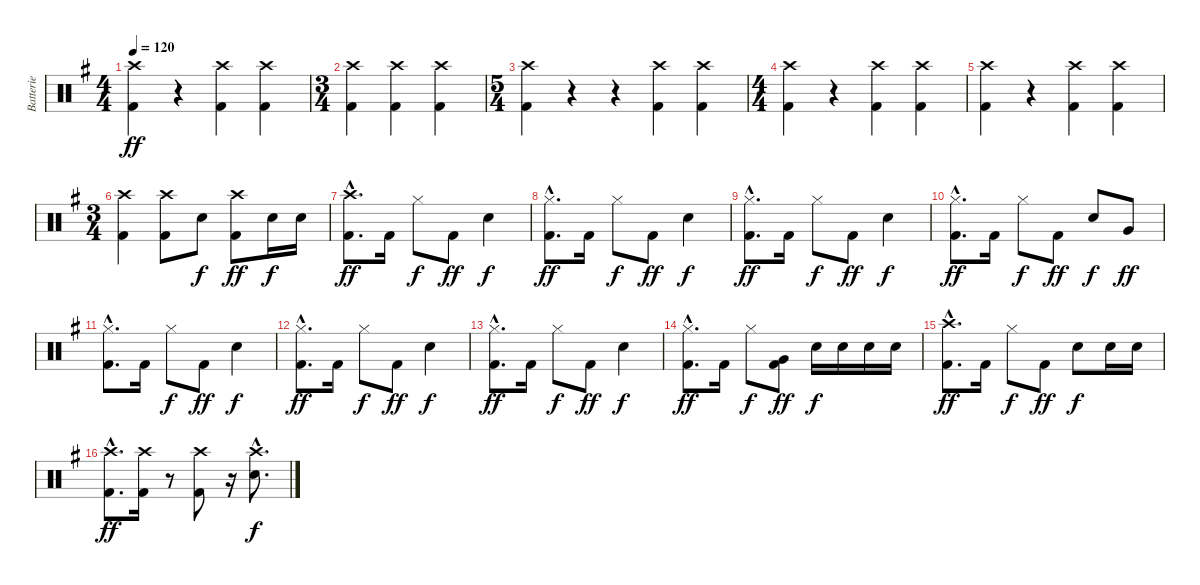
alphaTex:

\track ("Batterie" "Batterie") {instrument percussion}
\staff {score}
\articulation defaults
\ts (4 4)
\tempo 120
\clef neutral
\ks g
("Crash high (hit)" "Kick (hit) 2").4{dy ff} r.4 ("Crash high (hit)" "Kick (hit) 2").4 ("Crash high (hit)" "Kick (hit) 2").4 |
\ts (3 4)
("Crash high (hit)" "Kick (hit) 2").4 ("Crash high (hit)" "Kick (hit) 2").4 ("Crash high (hit)" "Kick (hit) 2").4 |
\ts (5 4)
("Crash high (hit)" "Kick (hit) 2").4 r.4 r.4 ("Crash high (hit)" "Kick (hit) 2").4 ("Crash high (hit)" "Kick (hit) 2").4 |
\ts (4 4)
("Crash high (hit)" "Kick (hit) 2").4 r.4 ("Crash high (hit)" "Kick (hit) 2").4 ("Crash high (hit)" "Kick (hit) 2").4 |
("Crash high (hit)" "Kick (hit) 2").4 r.4 ("Crash high (hit)" "Kick (hit) 2").4 ("Crash high (hit)" "Kick (hit) 2").4 |
\ts (3 4)
("Crash high (hit)" "Kick (hit) 2").4 ("Crash high (hit)" "Kick (hit) 2").8 "Snare (hit) 2".8{dy f} ("Crash high (hit)" "Kick (hit) 2").8{dy ff} "Snare (hit) 2".16{dy f} "Snare (hit) 2".16 |
("Crash high (hit)"{hac} "Kick (hit) 2"{hac}).8{d dy ff} "Kick (hit) 2".16 "Hi-Hat (closed)".8{dy f} "Kick (hit) 2".8{dy ff} "Snare (hit) 2".4{dy f} |
("Hi-Hat (closed)"{hac} "Kick (hit) 2"{hac}).8{d dy ff} "Kick (hit) 2".16 "Hi-Hat (closed)".8{dy f} "Kick (hit) 2".8{dy ff} "Snare (hit) 2".4{dy f} |
("Hi-Hat (closed)"{hac} "Kick (hit) 2"{hac}).8{d dy ff} "Kick (hit) 2".16 "Hi-Hat (closed)".8{dy f} "Kick (hit) 2".8{dy ff} "Snare (hit) 2".4{dy f} |
("Hi-Hat (closed)"{hac} "Kick (hit) 2"{hac}).8{d dy ff} "Kick (hit) 2".16 "Hi-Hat (closed)".8{dy f} "Kick (hit) 2".8{dy ff} "Snare (hit) 2".8{dy f} "Very Low Tom (hit)".8{dy ff} |
("Hi-Hat (closed)"{hac} "Kick (hit) 2"{hac}).8{d} "Kick (hit) 2".16 "Hi-Hat (closed)".8{dy f} "Kick (hit) 2".8{dy ff} "Snare (hit) 2".4{dy f} |
("Hi-Hat (closed)"{hac} "Kick (hit) 2"{hac}).8{d dy ff} "Kick (hit) 2".16 "Hi-Hat (closed)".8{dy f} "Kick (hit) 2".8{dy ff} "Snare (hit) 2".4{dy f} |
("Hi-Hat (closed)"{hac} "Kick (hit) 2"{hac}).8{d dy ff} "Kick (hit) 2".16 "Hi-Hat (closed)".8{dy f} "Kick (hit) 2".8{dy ff} "Snare (hit) 2".4{dy f} |
("Hi-Hat (closed)"{hac} "Kick (hit) 2"{hac}).8{d dy ff} "Kick (hit) 2".16 "Hi-Hat (closed)".8{dy f} ("Very Low Tom (hit)" "Kick (hit) 2").8{dy ff} "Snare (hit) 2".16{dy f} "Snare (hit) 2".16 "Snare (hit) 2".16 "Snare (hit) 2".16 |
("Crash high (hit)"{hac} "Kick (hit) 2"{hac}).8{d dy ff} "Kick (hit) 2".16 "Hi-Hat (closed)".8{dy f} "Kick (hit) 2".8{dy ff} "Snare (hit) 2".8{dy f} "Snare (hit) 2".16 "Snare (hit) 2".16 |
("Crash high (hit)"{hac} "Kick (hit) 2"{hac}).8{d dy ff} ("Crash high (hit)" "Kick (hit) 2").16 r.8 ("Crash high (hit)" "Kick (hit) 2").8 r.16 ("Crash high (hit)"{hac} "Snare (hit) 2"{hac}).8{d dy f}
